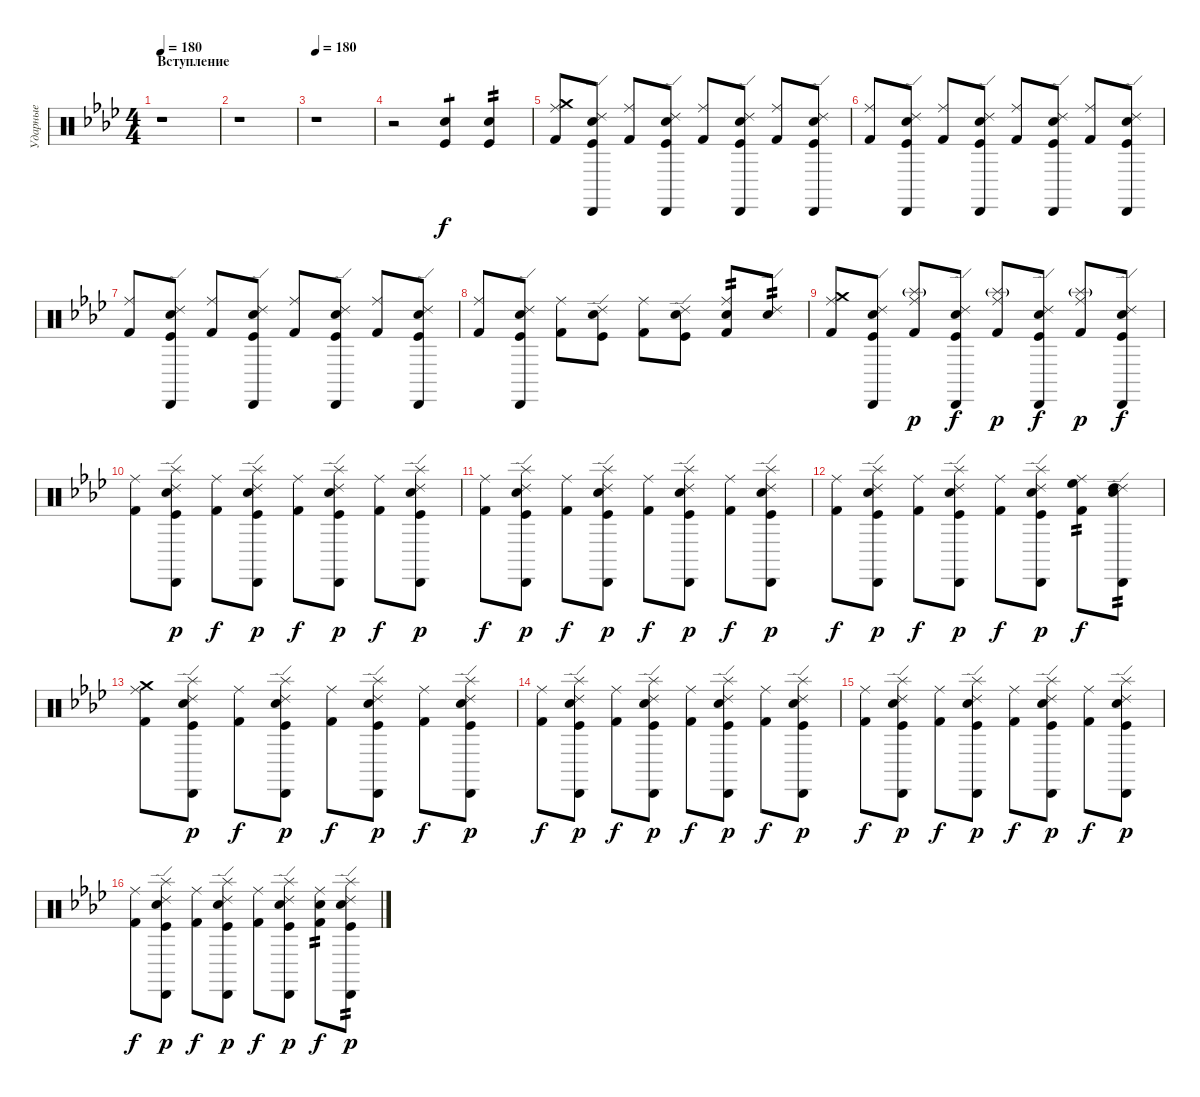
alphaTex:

\track ("Ударные" "Ударные") {instrument percussion}
\staff {score}
\articulation defaults
\ts (4 4)
\section ("" "Вступление")
\tempo 180
\clef neutral
\ks ab
r.1{dy f} |
r.1 |
\tempo 180
r.1 |
r.2 ("Electric Snare (hit)" "Kick (hit)").4{tp 1} ("Kick (hit)" "Electric Snare (hit)").4{tp 2} |
("Ride (middle)" "Kick (hit) 2" "Crash medium (hit)").8 ("Ride (edge) 2" "Cabasa (hit)" "Electric Snare (hit)" "Kick (hit)").8 ("Ride (middle)" "Kick (hit) 2").8 ("Ride (edge) 2" "Cabasa (hit)" "Electric Snare (hit)" "Kick (hit)").8 ("Ride (middle)" "Kick (hit) 2").8 ("Ride (edge) 2" "Cabasa (hit)" "Electric Snare (hit)" "Kick (hit)").8 ("Ride (middle)" "Kick (hit) 2").8 ("Ride (edge) 2" "Cabasa (hit)" "Electric Snare (hit)" "Kick (hit)").8 |
("Ride (middle)" "Kick (hit) 2").8 ("Ride (edge) 2" "Cabasa (hit)" "Electric Snare (hit)" "Kick (hit)").8 ("Ride (middle)" "Kick (hit) 2").8 ("Ride (edge) 2" "Cabasa (hit)" "Electric Snare (hit)" "Kick (hit)").8 ("Ride (middle)" "Kick (hit) 2").8 ("Ride (edge) 2" "Cabasa (hit)" "Electric Snare (hit)" "Kick (hit)").8 ("Ride (middle)" "Kick (hit) 2").8 ("Ride (edge) 2" "Cabasa (hit)" "Electric Snare (hit)" "Kick (hit)").8 |
("Ride (middle)" "Kick (hit) 2").8 ("Ride (edge) 2" "Cabasa (hit)" "Electric Snare (hit)" "Kick (hit)").8 ("Ride (middle)" "Kick (hit) 2").8 ("Ride (edge) 2" "Cabasa (hit)" "Electric Snare (hit)" "Kick (hit)").8 ("Ride (middle)" "Kick (hit) 2").8 ("Ride (edge) 2" "Cabasa (hit)" "Electric Snare (hit)" "Kick (hit)").8 ("Ride (middle)" "Kick (hit) 2").8 ("Ride (edge) 2" "Cabasa (hit)" "Electric Snare (hit)" "Kick (hit)").8 |
("Ride (middle)" "Kick (hit) 2").8 ("Ride (edge) 2" "Cabasa (hit)" "Electric Snare (hit)" "Kick (hit)").8 ("Ride (middle)" "Kick (hit) 2").8 ("Ride (edge) 2" "Electric Snare (hit)" "Kick (hit)").8 ("Ride (middle)" "Kick (hit) 2").8 ("Ride (edge) 2" "Electric Snare (hit)" "Kick (hit)").8 ("Ride (middle)" "Kick (hit) 2" "Electric Snare (hit)").8{tp 2} ("Ride (edge) 2" "Electric Snare (hit)").8{tp 2} |
("Ride (middle)" "Kick (hit) 2" "Crash medium (hit)").8 ("Ride (edge) 2" "Cabasa (hit)" "Electric Snare (hit)" "Kick (hit)").8 ("Ride (middle)" "Kick (hit) 2" "Splash (hit)"{g}).8{dy p} ("Ride (edge) 2" "Cabasa (hit)" "Electric Snare (hit)" "Kick (hit)").8{dy f} ("Ride (middle)" "Kick (hit) 2" "Splash (hit)"{g}).8{dy p} ("Ride (edge) 2" "Cabasa (hit)" "Electric Snare (hit)" "Kick (hit)").8{dy f} ("Ride (middle)" "Kick (hit) 2" "Splash (hit)"{g}).8{dy p} ("Ride (edge) 2" "Cabasa (hit)" "Electric Snare (hit)" "Kick (hit)").8{dy f} |
("Ride (middle)" "Kick (hit) 2").8 ("Ride (edge) 2" "Cabasa (hit)" "Electric Snare (hit)" "Kick (hit)" "Splash (hit)").8{dy p} ("Ride (middle)" "Kick (hit) 2").8{dy f} ("Ride (edge) 2" "Cabasa (hit)" "Electric Snare (hit)" "Kick (hit)" "Splash (hit)").8{dy p} ("Ride (middle)" "Kick (hit) 2").8{dy f} ("Ride (edge) 2" "Cabasa (hit)" "Electric Snare (hit)" "Kick (hit)" "Splash (hit)").8{dy p} ("Ride (middle)" "Kick (hit) 2").8{dy f} ("Ride (edge) 2" "Cabasa (hit)" "Electric Snare (hit)" "Kick (hit)" "Splash (hit)").8{dy p} |
("Ride (middle)" "Kick (hit) 2").8{dy f} ("Ride (edge) 2" "Cabasa (hit)" "Electric Snare (hit)" "Kick (hit)" "Splash (hit)").8{dy p} ("Ride (middle)" "Kick (hit) 2").8{dy f} ("Ride (edge) 2" "Cabasa (hit)" "Electric Snare (hit)" "Kick (hit)" "Splash (hit)").8{dy p} ("Ride (middle)" "Kick (hit) 2").8{dy f} ("Ride (edge) 2" "Cabasa (hit)" "Electric Snare (hit)" "Kick (hit)" "Splash (hit)").8{dy p} ("Ride (middle)" "Kick (hit) 2").8{dy f} ("Ride (edge) 2" "Cabasa (hit)" "Electric Snare (hit)" "Kick (hit)" "Splash (hit)").8{dy p} |
("Ride (middle)" "Kick (hit) 2").8{dy f} ("Ride (edge) 2" "Cabasa (hit)" "Electric Snare (hit)" "Kick (hit)" "Splash (hit)").8{dy p} ("Ride (middle)" "Kick (hit) 2").8{dy f} ("Ride (edge) 2" "Cabasa (hit)" "Electric Snare (hit)" "Kick (hit)" "Splash (hit)").8{dy p} ("Ride (middle)" "Kick (hit) 2").8{dy f} ("Ride (edge) 2" "Cabasa (hit)" "Electric Snare (hit)" "Kick (hit)" "Splash (hit)").8{dy p} ("Ride (middle)" "Kick (hit) 2" "High Floor Tom (hit)").8{tp 2 dy f} ("Ride (edge) 2" "Cabasa (hit)" "Electric Snare (hit)" "High Tom (hit)").8{tp 2} |
("Ride (middle)" "Kick (hit) 2" "Crash medium (hit)").8 ("Ride (edge) 2" "Cabasa (hit)" "Electric Snare (hit)" "Kick (hit)" "Splash (hit)").8{dy p} ("Ride (middle)" "Kick (hit) 2").8{dy f} ("Ride (edge) 2" "Cabasa (hit)" "Electric Snare (hit)" "Kick (hit)" "Splash (hit)").8{dy p} ("Ride (middle)" "Kick (hit) 2").8{dy f} ("Ride (edge) 2" "Cabasa (hit)" "Electric Snare (hit)" "Kick (hit)" "Splash (hit)").8{dy p} ("Ride (middle)" "Kick (hit) 2").8{dy f} ("Ride (edge) 2" "Cabasa (hit)" "Electric Snare (hit)" "Kick (hit)" "Splash (hit)").8{dy p} |
("Ride (middle)" "Kick (hit) 2").8{dy f} ("Ride (edge) 2" "Cabasa (hit)" "Electric Snare (hit)" "Kick (hit)" "Splash (hit)").8{dy p} ("Ride (middle)" "Kick (hit) 2").8{dy f} ("Ride (edge) 2" "Cabasa (hit)" "Electric Snare (hit)" "Kick (hit)" "Splash (hit)").8{dy p} ("Ride (middle)" "Kick (hit) 2").8{dy f} ("Ride (edge) 2" "Cabasa (hit)" "Electric Snare (hit)" "Kick (hit)" "Splash (hit)").8{dy p} ("Ride (middle)" "Kick (hit) 2").8{dy f} ("Ride (edge) 2" "Cabasa (hit)" "Electric Snare (hit)" "Kick (hit)" "Splash (hit)").8{dy p} |
("Ride (middle)" "Kick (hit) 2").8{dy f} ("Ride (edge) 2" "Cabasa (hit)" "Electric Snare (hit)" "Kick (hit)" "Splash (hit)").8{dy p} ("Ride (middle)" "Kick (hit) 2").8{dy f} ("Ride (edge) 2" "Cabasa (hit)" "Electric Snare (hit)" "Kick (hit)" "Splash (hit)").8{dy p} ("Ride (middle)" "Kick (hit) 2").8{dy f} ("Ride (edge) 2" "Cabasa (hit)" "Electric Snare (hit)" "Kick (hit)" "Splash (hit)").8{dy p} ("Ride (middle)" "Kick (hit) 2").8{dy f} ("Ride (edge) 2" "Cabasa (hit)" "Electric Snare (hit)" "Kick (hit)" "Splash (hit)").8{dy p} |
("Ride (middle)" "Kick (hit) 2").8{dy f} ("Ride (edge) 2" "Cabasa (hit)" "Electric Snare (hit)" "Kick (hit)" "Splash (hit)").8{dy p} ("Ride (middle)" "Kick (hit) 2").8{dy f} ("Ride (edge) 2" "Cabasa (hit)" "Electric Snare (hit)" "Kick (hit)" "Splash (hit)").8{dy p} ("Ride (middle)" "Kick (hit) 2").8{dy f} ("Ride (edge) 2" "Cabasa (hit)" "Electric Snare (hit)" "Kick (hit)" "Splash (hit)").8{dy p} ("Ride (middle)" "Kick (hit) 2" "Electric Snare (hit)").8{tp 2 dy f} ("Ride (edge) 2" "Cabasa (hit)" "Electric Snare (hit)" "Kick (hit)" "Splash (hit)").8{tp 2 dy p}
